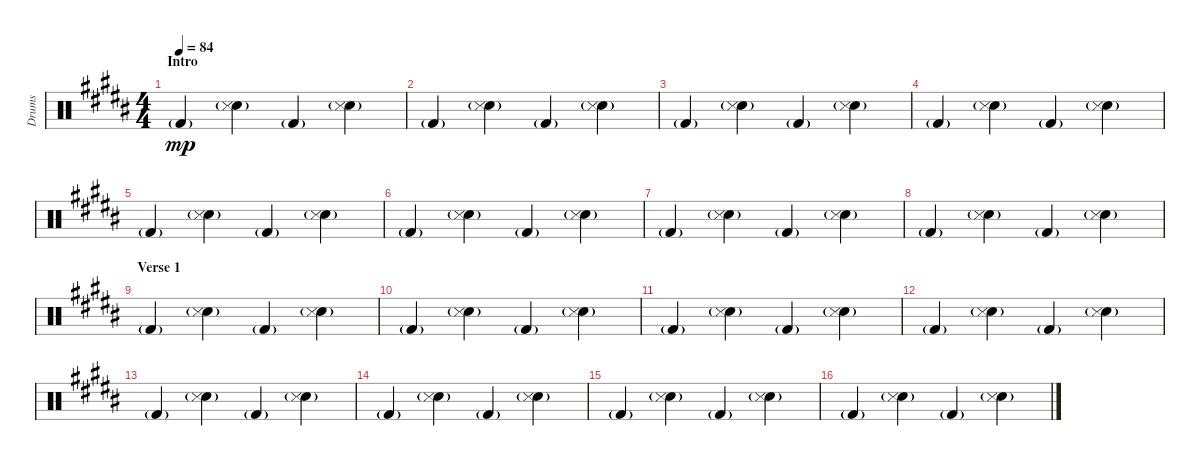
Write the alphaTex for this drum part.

\track ("Drums" "Drums") {instrument percussion}
\staff {score}
\articulation defaults
\ts (4 4)
\section ("" "Intro")
\tempo 84
\clef neutral
\ks b "Kick (hit) 2"{g}.4{dy mp}
("Snare (hit) 2"{g} "Snare (side stick) 3").4 "Kick (hit) 2"{g}.4 ("Snare (hit) 2"{g} "Snare (side stick) 3").4 |
"Kick (hit) 2"{g}.4 ("Snare (hit) 2"{g} "Snare (side stick) 3").4 "Kick (hit) 2"{g}.4 ("Snare (hit) 2"{g} "Snare (side stick) 3").4 |
"Kick (hit) 2"{g}.4 ("Snare (hit) 2"{g} "Snare (side stick) 3").4 "Kick (hit) 2"{g}.4 ("Snare (hit) 2"{g} "Snare (side stick) 3").4 |
"Kick (hit) 2"{g}.4 ("Snare (hit) 2"{g} "Snare (side stick) 3").4 "Kick (hit) 2"{g}.4 ("Snare (hit) 2"{g} "Snare (side stick) 3").4 |
"Kick (hit) 2"{g}.4 ("Snare (hit) 2"{g} "Snare (side stick) 3").4 "Kick (hit) 2"{g}.4 ("Snare (hit) 2"{g} "Snare (side stick) 3").4 |
"Kick (hit) 2"{g}.4 ("Snare (hit) 2"{g} "Snare (side stick) 3").4 "Kick (hit) 2"{g}.4 ("Snare (hit) 2"{g} "Snare (side stick) 3").4 |
"Kick (hit) 2"{g}.4 ("Snare (hit) 2"{g} "Snare (side stick) 3").4 "Kick (hit) 2"{g}.4 ("Snare (hit) 2"{g} "Snare (side stick) 3").4 |
"Kick (hit) 2"{g}.4 ("Snare (hit) 2"{g} "Snare (side stick) 3").4 "Kick (hit) 2"{g}.4 ("Snare (hit) 2"{g} "Snare (side stick) 3").4 |
\section ("" "Verse 1")
"Kick (hit) 2"{g}.4 ("Snare (hit) 2"{g} "Snare (side stick) 3").4 "Kick (hit) 2"{g}.4 ("Snare (hit) 2"{g} "Snare (side stick) 3").4 |
"Kick (hit) 2"{g}.4 ("Snare (hit) 2"{g} "Snare (side stick) 3").4 "Kick (hit) 2"{g}.4 ("Snare (hit) 2"{g} "Snare (side stick) 3").4 |
"Kick (hit) 2"{g}.4 ("Snare (hit) 2"{g} "Snare (side stick) 3").4 "Kick (hit) 2"{g}.4 ("Snare (hit) 2"{g} "Snare (side stick) 3").4 |
"Kick (hit) 2"{g}.4 ("Snare (hit) 2"{g} "Snare (side stick) 3").4 "Kick (hit) 2"{g}.4 ("Snare (hit) 2"{g} "Snare (side stick) 3").4 |
"Kick (hit) 2"{g}.4 ("Snare (hit) 2"{g} "Snare (side stick) 3").4 "Kick (hit) 2"{g}.4 ("Snare (hit) 2"{g} "Snare (side stick) 3").4 |
"Kick (hit) 2"{g}.4 ("Snare (hit) 2"{g} "Snare (side stick) 3").4 "Kick (hit) 2"{g}.4 ("Snare (hit) 2"{g} "Snare (side stick) 3").4 |
"Kick (hit) 2"{g}.4 ("Snare (hit) 2"{g} "Snare (side stick) 3").4 "Kick (hit) 2"{g}.4 ("Snare (hit) 2"{g} "Snare (side stick) 3").4 |
"Kick (hit) 2"{g}.4 ("Snare (hit) 2"{g} "Snare (side stick) 3").4 "Kick (hit) 2"{g}.4 ("Snare (hit) 2"{g} "Snare (side stick) 3").4
